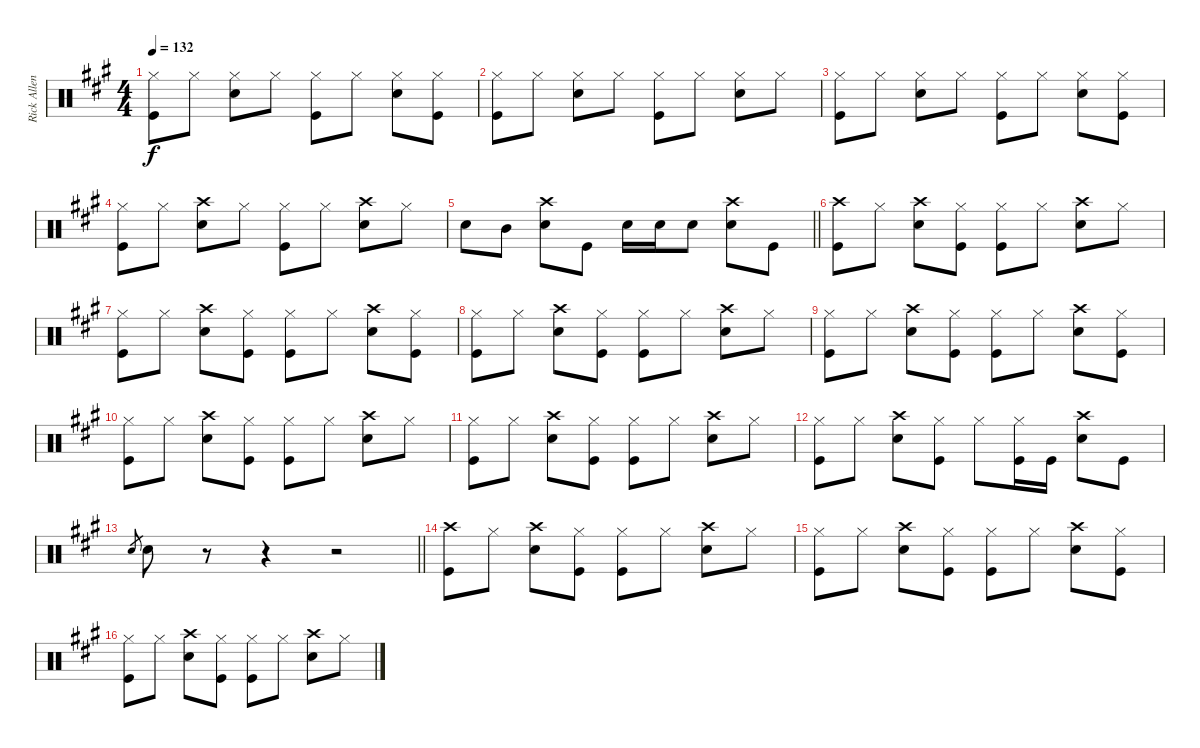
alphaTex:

\track ("Rick Allen" "Rick Allen") {instrument percussion}
\staff {score}
\articulation defaults
\ts (4 4)
\tempo 132
\clef neutral
\ks a
("Hi-Hat (closed)" "Kick (hit)").8{dy f} "Hi-Hat (closed)".8 ("Hi-Hat (closed)" "Snare (hit) 2").8 "Hi-Hat (closed)".8 ("Hi-Hat (closed)" "Kick (hit)").8 "Hi-Hat (closed)".8 ("Hi-Hat (closed)" "Snare (hit) 2").8 ("Hi-Hat (closed)" "Kick (hit)").8 |
("Hi-Hat (closed)" "Kick (hit)").8 "Hi-Hat (closed)".8 ("Hi-Hat (closed)" "Snare (hit) 2").8 "Hi-Hat (closed)".8 ("Hi-Hat (closed)" "Kick (hit)").8 "Hi-Hat (closed)".8 ("Hi-Hat (closed)" "Snare (hit) 2").8 "Hi-Hat (closed)".8 |
("Hi-Hat (closed)" "Kick (hit)").8 "Hi-Hat (closed)".8 ("Hi-Hat (closed)" "Snare (hit) 2").8 "Hi-Hat (closed)".8 ("Hi-Hat (closed)" "Kick (hit)").8 "Hi-Hat (closed)".8 ("Hi-Hat (closed)" "Snare (hit) 2").8 ("Hi-Hat (closed)" "Kick (hit)").8 |
("Hi-Hat (closed)" "Kick (hit)").8 "Hi-Hat (closed)".8 ("Crash high (hit)" "Snare (hit) 2").8 "Hi-Hat (closed)".8 ("Hi-Hat (closed)" "Kick (hit)").8 "Hi-Hat (closed)".8 ("Crash high (hit)" "Snare (hit) 2").8 "Hi-Hat (closed)".8 |
\barLineRight lightlight "Snare (hit) 2".8 "Mid Tom (hit)".8
("Crash high (hit)" "Snare (hit) 2").8 "Kick (hit)".8 "Snare (hit) 2".16 "Snare (hit) 2".16 "Snare (hit) 2".8 ("Crash high (hit)" "Snare (hit) 2").8 "Kick (hit)".8 |
("Crash high (hit)" "Kick (hit)").8 "Hi-Hat (closed)".8 ("Crash high (hit)" "Snare (hit) 2").8 ("Hi-Hat (closed)" "Kick (hit)").8 ("Hi-Hat (closed)" "Kick (hit)").8 "Hi-Hat (closed)".8 ("Crash high (hit)" "Snare (hit) 2").8 "Hi-Hat (closed)".8 |
("Hi-Hat (closed)" "Kick (hit)").8 "Hi-Hat (closed)".8 ("Crash high (hit)" "Snare (hit) 2").8 ("Hi-Hat (closed)" "Kick (hit)").8 ("Hi-Hat (closed)" "Kick (hit)").8 "Hi-Hat (closed)".8 ("Crash high (hit)" "Snare (hit) 2").8 ("Hi-Hat (closed)" "Kick (hit)").8 |
("Hi-Hat (closed)" "Kick (hit)").8 "Hi-Hat (closed)".8 ("Crash high (hit)" "Snare (hit) 2").8 ("Hi-Hat (closed)" "Kick (hit)").8 ("Hi-Hat (closed)" "Kick (hit)").8 "Hi-Hat (closed)".8 ("Crash high (hit)" "Snare (hit) 2").8 "Hi-Hat (closed)".8 |
("Hi-Hat (closed)" "Kick (hit)").8 "Hi-Hat (closed)".8 ("Crash high (hit)" "Snare (hit) 2").8 ("Hi-Hat (closed)" "Kick (hit)").8 ("Hi-Hat (closed)" "Kick (hit)").8 "Hi-Hat (closed)".8 ("Crash high (hit)" "Snare (hit) 2").8 ("Hi-Hat (closed)" "Kick (hit)").8 |
("Hi-Hat (closed)" "Kick (hit)").8 "Hi-Hat (closed)".8 ("Crash high (hit)" "Snare (hit) 2").8 ("Hi-Hat (closed)" "Kick (hit)").8 ("Hi-Hat (closed)" "Kick (hit)").8 "Hi-Hat (closed)".8 ("Crash high (hit)" "Snare (hit) 2").8 "Hi-Hat (closed)".8 |
("Hi-Hat (closed)" "Kick (hit)").8 "Hi-Hat (closed)".8 ("Crash high (hit)" "Snare (hit) 2").8 ("Hi-Hat (closed)" "Kick (hit)").8 ("Hi-Hat (closed)" "Kick (hit)").8 "Hi-Hat (closed)".8 ("Crash high (hit)" "Snare (hit) 2").8 "Hi-Hat (closed)".8 |
("Hi-Hat (closed)" "Kick (hit)").8 "Hi-Hat (closed)".8 ("Crash high (hit)" "Snare (hit) 2").8 ("Hi-Hat (closed)" "Kick (hit)").8 "Hi-Hat (closed)".8 ("Hi-Hat (closed)" "Kick (hit)").16 "Kick (hit)".16 ("Crash high (hit)" "Snare (hit) 2").8 "Kick (hit)".8 |
\barLineRight lightlight "Snare (hit) 2".8{gr} "Snare (hit) 2".8
r.8 r.4 r.2 |
("Crash high (hit)" "Kick (hit)").8 "Hi-Hat (closed)".8 ("Crash high (hit)" "Snare (hit) 2").8 ("Hi-Hat (closed)" "Kick (hit)").8 ("Hi-Hat (closed)" "Kick (hit)").8 "Hi-Hat (closed)".8 ("Crash high (hit)" "Snare (hit) 2").8 "Hi-Hat (closed)".8 |
("Hi-Hat (closed)" "Kick (hit)").8 "Hi-Hat (closed)".8 ("Crash high (hit)" "Snare (hit) 2").8 ("Hi-Hat (closed)" "Kick (hit)").8 ("Hi-Hat (closed)" "Kick (hit)").8 "Hi-Hat (closed)".8 ("Crash high (hit)" "Snare (hit) 2").8 ("Hi-Hat (closed)" "Kick (hit)").8 |
("Hi-Hat (closed)" "Kick (hit)").8 "Hi-Hat (closed)".8 ("Crash high (hit)" "Snare (hit) 2").8 ("Hi-Hat (closed)" "Kick (hit)").8 ("Hi-Hat (closed)" "Kick (hit)").8 "Hi-Hat (closed)".8 ("Crash high (hit)" "Snare (hit) 2").8 "Hi-Hat (closed)".8
